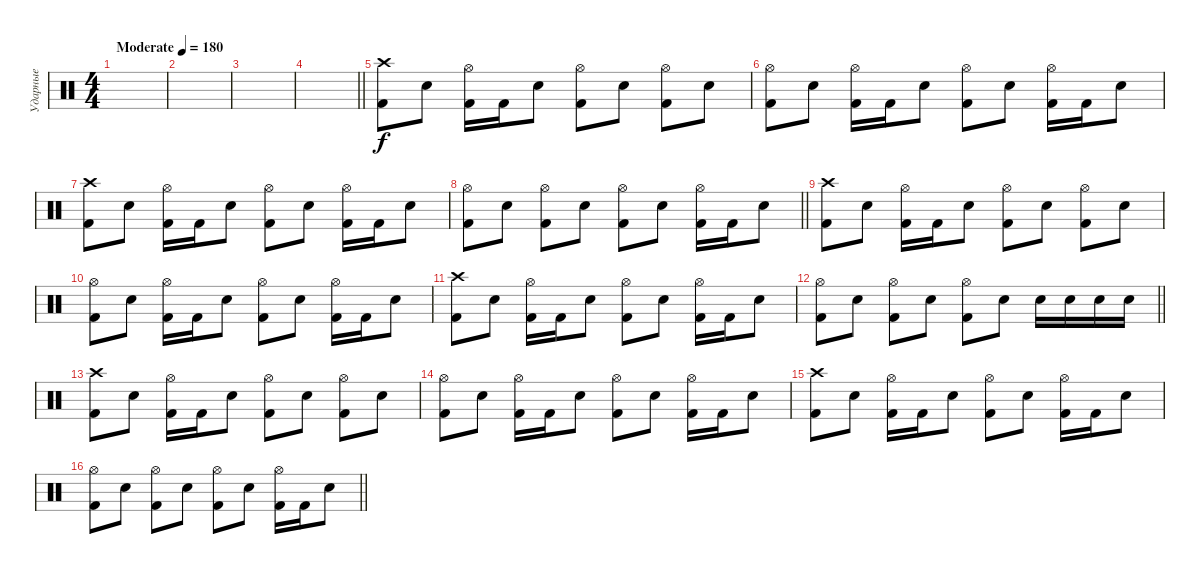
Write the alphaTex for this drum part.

\track ("Ударные" "Ударные") {instrument percussion}
\staff {score}
\articulation defaults
\ts (4 4)
\tempo (180 "Moderate")
\clef neutral
\ks c
|
|
|
\barLineRight lightlight
|
("Crash high (hit)" "Kick (hit) 2").8 "Electric Snare (hit)".8 ("Hi-Hat (open)" "Kick (hit) 2").16 "Kick (hit) 2".16 "Electric Snare (hit)".8 ("Hi-Hat (open)" "Kick (hit) 2").8 "Electric Snare (hit)".8 ("Hi-Hat (open)" "Kick (hit) 2").8 "Electric Snare (hit)".8 |
("Hi-Hat (open)" "Kick (hit) 2").8 "Electric Snare (hit)".8 ("Hi-Hat (open)" "Kick (hit) 2").16 "Kick (hit) 2".16 "Electric Snare (hit)".8 ("Hi-Hat (open)" "Kick (hit) 2").8 "Electric Snare (hit)".8 ("Hi-Hat (open)" "Kick (hit) 2").16 "Kick (hit) 2".16 "Electric Snare (hit)".8 |
("Crash high (hit)" "Kick (hit) 2").8 "Electric Snare (hit)".8 ("Hi-Hat (open)" "Kick (hit) 2").16 "Kick (hit) 2".16 "Electric Snare (hit)".8 ("Hi-Hat (open)" "Kick (hit) 2").8 "Electric Snare (hit)".8 ("Hi-Hat (open)" "Kick (hit) 2").16 "Kick (hit) 2".16 "Electric Snare (hit)".8 |
\barLineRight lightlight
("Hi-Hat (open)" "Kick (hit) 2").8 "Electric Snare (hit)".8 ("Hi-Hat (open)" "Kick (hit) 2").8 "Electric Snare (hit)".8 ("Hi-Hat (open)" "Kick (hit) 2").8 "Electric Snare (hit)".8 ("Hi-Hat (open)" "Kick (hit) 2").16 "Kick (hit) 2".16 "Electric Snare (hit)".8 |
\section ("" "")
("Crash high (hit)" "Kick (hit) 2").8 "Electric Snare (hit)".8 ("Hi-Hat (open)" "Kick (hit) 2").16 "Kick (hit) 2".16 "Electric Snare (hit)".8 ("Hi-Hat (open)" "Kick (hit) 2").8 "Electric Snare (hit)".8 ("Hi-Hat (open)" "Kick (hit) 2").8 "Electric Snare (hit)".8 |
("Hi-Hat (open)" "Kick (hit) 2").8 "Electric Snare (hit)".8 ("Hi-Hat (open)" "Kick (hit) 2").16 "Kick (hit) 2".16 "Electric Snare (hit)".8 ("Hi-Hat (open)" "Kick (hit) 2").8 "Electric Snare (hit)".8 ("Hi-Hat (open)" "Kick (hit) 2").16 "Kick (hit) 2".16 "Electric Snare (hit)".8 |
("Crash high (hit)" "Kick (hit) 2").8 "Electric Snare (hit)".8 ("Hi-Hat (open)" "Kick (hit) 2").16 "Kick (hit) 2".16 "Electric Snare (hit)".8 ("Hi-Hat (open)" "Kick (hit) 2").8 "Electric Snare (hit)".8 ("Hi-Hat (open)" "Kick (hit) 2").16 "Kick (hit) 2".16 "Electric Snare (hit)".8 |
\barLineRight lightlight
("Hi-Hat (open)" "Kick (hit) 2").8 "Electric Snare (hit)".8 ("Hi-Hat (open)" "Kick (hit) 2").8 "Electric Snare (hit)".8 ("Hi-Hat (open)" "Kick (hit) 2").8 "Electric Snare (hit)".8 "Electric Snare (hit)".16 "Electric Snare (hit)".16 "Electric Snare (hit)".16 "Electric Snare (hit)".16 |
\section ("" "")
("Crash high (hit)" "Kick (hit) 2").8 "Electric Snare (hit)".8 ("Hi-Hat (open)" "Kick (hit) 2").16 "Kick (hit) 2".16 "Electric Snare (hit)".8 ("Hi-Hat (open)" "Kick (hit) 2").8 "Electric Snare (hit)".8 ("Hi-Hat (open)" "Kick (hit) 2").8 "Electric Snare (hit)".8 |
("Hi-Hat (open)" "Kick (hit) 2").8 "Electric Snare (hit)".8 ("Hi-Hat (open)" "Kick (hit) 2").16 "Kick (hit) 2".16 "Electric Snare (hit)".8 ("Hi-Hat (open)" "Kick (hit) 2").8 "Electric Snare (hit)".8 ("Hi-Hat (open)" "Kick (hit) 2").16 "Kick (hit) 2".16 "Electric Snare (hit)".8 |
("Crash high (hit)" "Kick (hit) 2").8 "Electric Snare (hit)".8 ("Hi-Hat (open)" "Kick (hit) 2").16 "Kick (hit) 2".16 "Electric Snare (hit)".8 ("Hi-Hat (open)" "Kick (hit) 2").8 "Electric Snare (hit)".8 ("Hi-Hat (open)" "Kick (hit) 2").16 "Kick (hit) 2".16 "Electric Snare (hit)".8 |
\barLineRight lightlight
("Hi-Hat (open)" "Kick (hit) 2").8 "Electric Snare (hit)".8 ("Hi-Hat (open)" "Kick (hit) 2").8 "Electric Snare (hit)".8 ("Hi-Hat (open)" "Kick (hit) 2").8 "Electric Snare (hit)".8 ("Hi-Hat (open)" "Kick (hit) 2").16 "Kick (hit) 2".16 "Electric Snare (hit)".8
